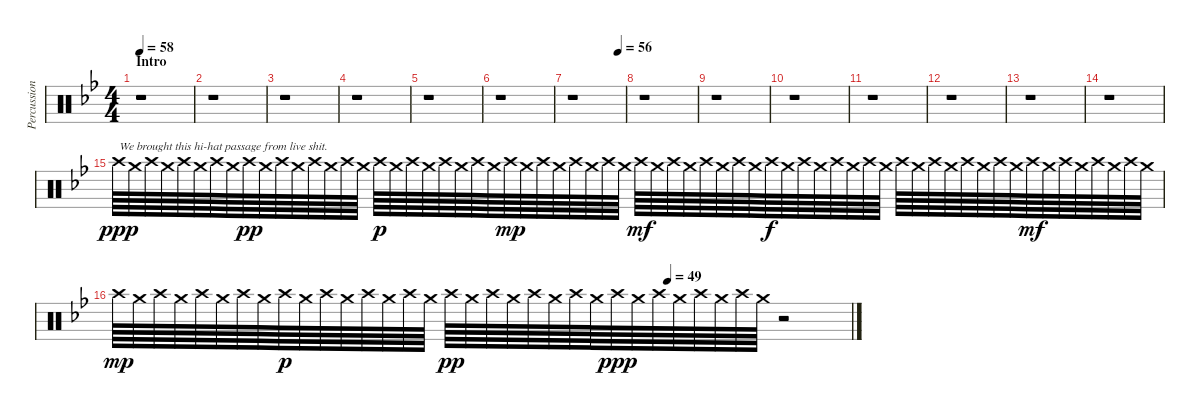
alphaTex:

\track ("Percussion" "Percussion") {instrument percussion}
\staff {score}
\articulation defaults
\ts (4 4)
\section ("" "Intro")
\tempo 58
\clef neutral
\ks bb
r.1{dy ppp} |
r.1 |
r.1 |
r.1 |
r.1 |
r.1 |
\tempo (56 0.875)
r.1 |
r.1 |
r.1 |
r.1 |
r.1 |
r.1 |
r.1 |
r.1 |
"Crash high (hit)".64{txt "We brought this hi-hat passage from live shit."} "Crash medium (hit)".64 "Crash high (hit)".64 "Crash medium (hit)".64 "Crash high (hit)".64 "Crash medium (hit)".64 "Crash high (hit)".64 "Crash medium (hit)".64 "Crash high (hit)".64{dy pp} "Crash medium (hit)".64 "Crash high (hit)".64 "Crash medium (hit)".64 "Crash high (hit)".64 "Crash medium (hit)".64 "Crash high (hit)".64 "Crash medium (hit)".64 "Crash high (hit)".64{dy p} "Crash medium (hit)".64 "Crash high (hit)".64 "Crash medium (hit)".64 "Crash high (hit)".64 "Crash medium (hit)".64 "Crash high (hit)".64 "Crash medium (hit)".64 "Crash high (hit)".64{dy mp} "Crash medium (hit)".64 "Crash high (hit)".64 "Crash medium (hit)".64 "Crash high (hit)".64 "Crash medium (hit)".64 "Crash high (hit)".64 "Crash medium (hit)".64 "Crash high (hit)".64{dy mf} "Crash medium (hit)".64 "Crash high (hit)".64 "Crash medium (hit)".64 "Crash high (hit)".64 "Crash medium (hit)".64 "Crash high (hit)".64 "Crash medium (hit)".64 "Crash high (hit)".64{dy f} "Crash medium (hit)".64 "Crash high (hit)".64 "Crash medium (hit)".64 "Crash high (hit)".64 "Crash medium (hit)".64 "Crash high (hit)".64 "Crash medium (hit)".64 "Crash high (hit)".64 "Crash medium (hit)".64 "Crash high (hit)".64 "Crash medium (hit)".64 "Crash high (hit)".64 "Crash medium (hit)".64 "Crash high (hit)".64 "Crash medium (hit)".64 "Crash high (hit)".64{dy mf} "Crash medium (hit)".64 "Crash high (hit)".64 "Crash medium (hit)".64 "Crash high (hit)".64 "Crash medium (hit)".64 "Crash high (hit)".64 "Crash medium (hit)".64 |
\tempo (49 0.75)
"Crash high (hit)".64{dy mp} "Crash medium (hit)".64 "Crash high (hit)".64 "Crash medium (hit)".64 "Crash high (hit)".64 "Crash medium (hit)".64 "Crash high (hit)".64 "Crash medium (hit)".64 "Crash high (hit)".64{dy p} "Crash medium (hit)".64 "Crash high (hit)".64 "Crash medium (hit)".64 "Crash high (hit)".64 "Crash medium (hit)".64 "Crash high (hit)".64 "Crash medium (hit)".64 "Crash high (hit)".64{dy pp} "Crash medium (hit)".64 "Crash high (hit)".64 "Crash medium (hit)".64 "Crash high (hit)".64 "Crash medium (hit)".64 "Crash high (hit)".64 "Crash medium (hit)".64 "Crash high (hit)".64{dy ppp} "Crash medium (hit)".64 "Crash high (hit)".64 "Crash medium (hit)".64 "Crash high (hit)".64 "Crash medium (hit)".64 "Crash high (hit)".64 "Crash medium (hit)".64 r.2
